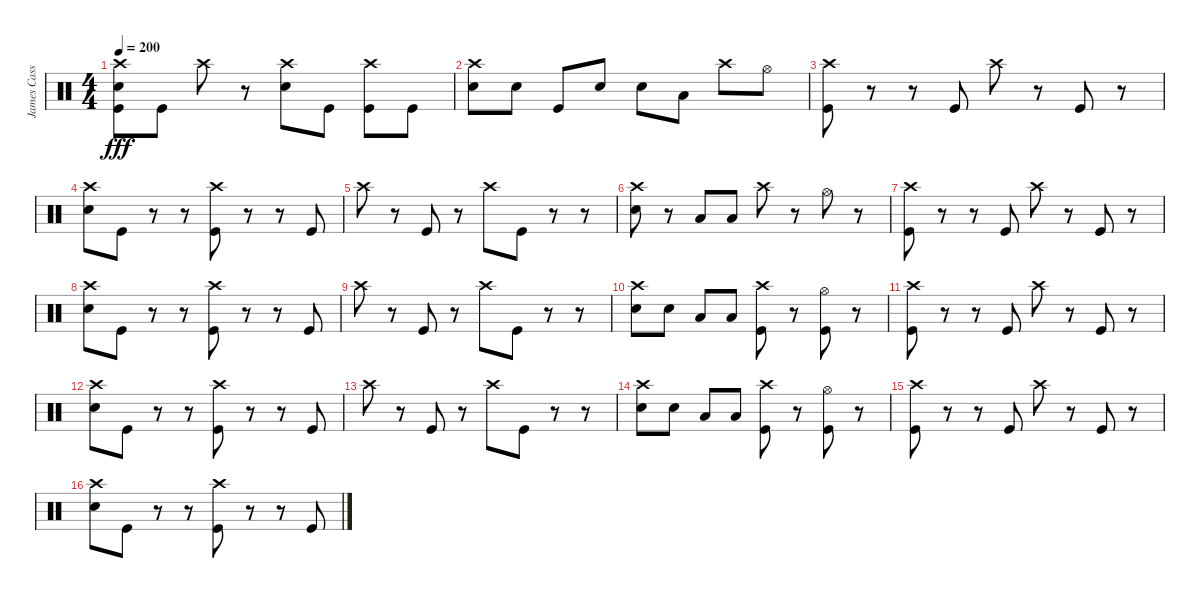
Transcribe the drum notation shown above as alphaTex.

\track ("James Cassells" "James Cass") {instrument percussion}
\staff {score}
\articulation defaults
\ts (4 4)
\tempo 200
\clef neutral
\ks c
("Crash high (hit)" "Electric Snare (hit)" "Kick (hit)").8{dy fff} "Kick (hit)".8 "Crash high (hit)".8 r.8 ("Crash high (hit)" "Electric Snare (hit)").8 "Kick (hit)".8 ("Crash high (hit)" "Kick (hit)").8 "Kick (hit)".8 |
("Crash high (hit)" "Electric Snare (hit)").8 "Electric Snare (hit)".8 "Kick (hit)".8 "Electric Snare (hit)".8 "Electric Snare (hit)".8 "Low Tom (hit)".8 "Crash high (hit)".8 "Hi-Hat (open)".8 |
("Crash high (hit)" "Kick (hit)").8 r.8 r.8 "Kick (hit)".8 "Crash high (hit)".8 r.8 "Kick (hit)".8 r.8 |
("Crash high (hit)" "Electric Snare (hit)").8 "Kick (hit)".8 r.8 r.8 ("Crash high (hit)" "Kick (hit)").8 r.8 r.8 "Kick (hit)".8 |
"Crash high (hit)".8 r.8 "Kick (hit)".8 r.8 "Crash high (hit)".8 "Kick (hit)".8 r.8 r.8 |
("Crash high (hit)" "Electric Snare (hit)").8 r.8 "Low Tom (hit)".8 "Low Tom (hit)".8 "Crash high (hit)".8 r.8 "Hi-Hat (open)".8 r.8 |
("Crash high (hit)" "Kick (hit)").8 r.8 r.8 "Kick (hit)".8 "Crash high (hit)".8 r.8 "Kick (hit)".8 r.8 |
("Crash high (hit)" "Electric Snare (hit)").8 "Kick (hit)".8 r.8 r.8 ("Crash high (hit)" "Kick (hit)").8 r.8 r.8 "Kick (hit)".8 |
"Crash high (hit)".8 r.8 "Kick (hit)".8 r.8 "Crash high (hit)".8 "Kick (hit)".8 r.8 r.8 |
("Crash high (hit)" "Electric Snare (hit)").8 "Electric Snare (hit)".8 "Low Tom (hit)".8 "Low Tom (hit)".8 ("Crash high (hit)" "Kick (hit)").8 r.8 ("Hi-Hat (open)" "Kick (hit)").8 r.8 |
("Crash high (hit)" "Kick (hit)").8 r.8 r.8 "Kick (hit)".8 "Crash high (hit)".8 r.8 "Kick (hit)".8 r.8 |
("Crash high (hit)" "Electric Snare (hit)").8 "Kick (hit)".8 r.8 r.8 ("Crash high (hit)" "Kick (hit)").8 r.8 r.8 "Kick (hit)".8 |
"Crash high (hit)".8 r.8 "Kick (hit)".8 r.8 "Crash high (hit)".8 "Kick (hit)".8 r.8 r.8 |
("Crash high (hit)" "Electric Snare (hit)").8 "Electric Snare (hit)".8 "Low Tom (hit)".8 "Low Tom (hit)".8 ("Crash high (hit)" "Kick (hit)").8 r.8 ("Hi-Hat (open)" "Kick (hit)").8 r.8 |
("Crash high (hit)" "Kick (hit)").8 r.8 r.8 "Kick (hit)".8 "Crash high (hit)".8 r.8 "Kick (hit)".8 r.8 |
("Crash high (hit)" "Electric Snare (hit)").8 "Kick (hit)".8 r.8 r.8 ("Crash high (hit)" "Kick (hit)").8 r.8 r.8 "Kick (hit)".8
